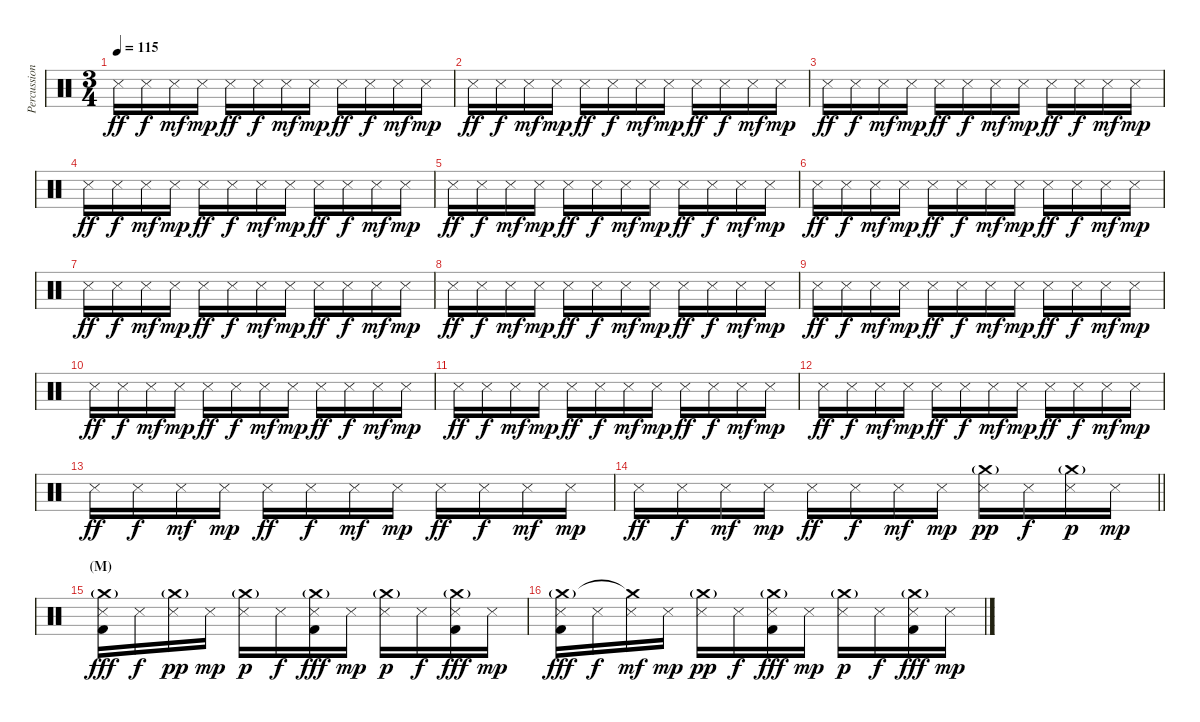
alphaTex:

\track ("Percussion 1" "Percussion") {instrument percussion}
\staff {score}
\articulation defaults
\ts (3 4)
\tempo 115
\clef neutral
\ks c "Snare (side stick) 3".16{dy ff} "Snare (side stick) 3".16{dy f} "Snare (side stick) 3".16{dy mf} "Snare (side stick) 3".16{dy mp} "Snare (side stick) 3".16{dy ff} "Snare (side stick) 3".16{dy f} "Snare (side stick) 3".16{dy mf} "Snare (side stick) 3".16{dy mp} "Snare (side stick) 3".16{dy ff} "Snare (side stick) 3".16{dy f} "Snare (side stick) 3".16{dy mf} "Snare (side stick) 3".16{dy mp}
|
"Snare (side stick) 3".16{dy ff} "Snare (side stick) 3".16{dy f} "Snare (side stick) 3".16{dy mf} "Snare (side stick) 3".16{dy mp} "Snare (side stick) 3".16{dy ff} "Snare (side stick) 3".16{dy f} "Snare (side stick) 3".16{dy mf} "Snare (side stick) 3".16{dy mp} "Snare (side stick) 3".16{dy ff} "Snare (side stick) 3".16{dy f} "Snare (side stick) 3".16{dy mf} "Snare (side stick) 3".16{dy mp} |
"Snare (side stick) 3".16{dy ff} "Snare (side stick) 3".16{dy f} "Snare (side stick) 3".16{dy mf} "Snare (side stick) 3".16{dy mp} "Snare (side stick) 3".16{dy ff} "Snare (side stick) 3".16{dy f} "Snare (side stick) 3".16{dy mf} "Snare (side stick) 3".16{dy mp} "Snare (side stick) 3".16{dy ff} "Snare (side stick) 3".16{dy f} "Snare (side stick) 3".16{dy mf} "Snare (side stick) 3".16{dy mp} |
"Snare (side stick) 3".16{dy ff} "Snare (side stick) 3".16{dy f} "Snare (side stick) 3".16{dy mf} "Snare (side stick) 3".16{dy mp} "Snare (side stick) 3".16{dy ff} "Snare (side stick) 3".16{dy f} "Snare (side stick) 3".16{dy mf} "Snare (side stick) 3".16{dy mp} "Snare (side stick) 3".16{dy ff} "Snare (side stick) 3".16{dy f} "Snare (side stick) 3".16{dy mf} "Snare (side stick) 3".16{dy mp} |
"Snare (side stick) 3".16{dy ff} "Snare (side stick) 3".16{dy f} "Snare (side stick) 3".16{dy mf} "Snare (side stick) 3".16{dy mp} "Snare (side stick) 3".16{dy ff} "Snare (side stick) 3".16{dy f} "Snare (side stick) 3".16{dy mf} "Snare (side stick) 3".16{dy mp} "Snare (side stick) 3".16{dy ff} "Snare (side stick) 3".16{dy f} "Snare (side stick) 3".16{dy mf} "Snare (side stick) 3".16{dy mp} |
"Snare (side stick) 3".16{dy ff} "Snare (side stick) 3".16{dy f} "Snare (side stick) 3".16{dy mf} "Snare (side stick) 3".16{dy mp} "Snare (side stick) 3".16{dy ff} "Snare (side stick) 3".16{dy f} "Snare (side stick) 3".16{dy mf} "Snare (side stick) 3".16{dy mp} "Snare (side stick) 3".16{dy ff} "Snare (side stick) 3".16{dy f} "Snare (side stick) 3".16{dy mf} "Snare (side stick) 3".16{dy mp} |
"Snare (side stick) 3".16{dy ff} "Snare (side stick) 3".16{dy f} "Snare (side stick) 3".16{dy mf} "Snare (side stick) 3".16{dy mp} "Snare (side stick) 3".16{dy ff} "Snare (side stick) 3".16{dy f} "Snare (side stick) 3".16{dy mf} "Snare (side stick) 3".16{dy mp} "Snare (side stick) 3".16{dy ff} "Snare (side stick) 3".16{dy f} "Snare (side stick) 3".16{dy mf} "Snare (side stick) 3".16{dy mp} |
"Snare (side stick) 3".16{dy ff} "Snare (side stick) 3".16{dy f} "Snare (side stick) 3".16{dy mf} "Snare (side stick) 3".16{dy mp} "Snare (side stick) 3".16{dy ff} "Snare (side stick) 3".16{dy f} "Snare (side stick) 3".16{dy mf} "Snare (side stick) 3".16{dy mp} "Snare (side stick) 3".16{dy ff} "Snare (side stick) 3".16{dy f} "Snare (side stick) 3".16{dy mf} "Snare (side stick) 3".16{dy mp} |
"Snare (side stick) 3".16{dy ff} "Snare (side stick) 3".16{dy f} "Snare (side stick) 3".16{dy mf} "Snare (side stick) 3".16{dy mp} "Snare (side stick) 3".16{dy ff} "Snare (side stick) 3".16{dy f} "Snare (side stick) 3".16{dy mf} "Snare (side stick) 3".16{dy mp} "Snare (side stick) 3".16{dy ff} "Snare (side stick) 3".16{dy f} "Snare (side stick) 3".16{dy mf} "Snare (side stick) 3".16{dy mp} |
"Snare (side stick) 3".16{dy ff} "Snare (side stick) 3".16{dy f} "Snare (side stick) 3".16{dy mf} "Snare (side stick) 3".16{dy mp} "Snare (side stick) 3".16{dy ff} "Snare (side stick) 3".16{dy f} "Snare (side stick) 3".16{dy mf} "Snare (side stick) 3".16{dy mp} "Snare (side stick) 3".16{dy ff} "Snare (side stick) 3".16{dy f} "Snare (side stick) 3".16{dy mf} "Snare (side stick) 3".16{dy mp} |
"Snare (side stick) 3".16{dy ff} "Snare (side stick) 3".16{dy f} "Snare (side stick) 3".16{dy mf} "Snare (side stick) 3".16{dy mp} "Snare (side stick) 3".16{dy ff} "Snare (side stick) 3".16{dy f} "Snare (side stick) 3".16{dy mf} "Snare (side stick) 3".16{dy mp} "Snare (side stick) 3".16{dy ff} "Snare (side stick) 3".16{dy f} "Snare (side stick) 3".16{dy mf} "Snare (side stick) 3".16{dy mp} |
"Snare (side stick) 3".16{dy ff} "Snare (side stick) 3".16{dy f} "Snare (side stick) 3".16{dy mf} "Snare (side stick) 3".16{dy mp} "Snare (side stick) 3".16{dy ff} "Snare (side stick) 3".16{dy f} "Snare (side stick) 3".16{dy mf} "Snare (side stick) 3".16{dy mp} "Snare (side stick) 3".16{dy ff} "Snare (side stick) 3".16{dy f} "Snare (side stick) 3".16{dy mf} "Snare (side stick) 3".16{dy mp} |
"Snare (side stick) 3".16{dy ff} "Snare (side stick) 3".16{dy f} "Snare (side stick) 3".16{dy mf} "Snare (side stick) 3".16{dy mp} "Snare (side stick) 3".16{dy ff} "Snare (side stick) 3".16{dy f} "Snare (side stick) 3".16{dy mf} "Snare (side stick) 3".16{dy mp} "Snare (side stick) 3".16{dy ff} "Snare (side stick) 3".16{dy f} "Snare (side stick) 3".16{dy mf} "Snare (side stick) 3".16{dy mp} |
\barLineRight lightlight "Snare (side stick) 3".16{dy ff} "Snare (side stick) 3".16{dy f} "Snare (side stick) 3".16{dy mf} "Snare (side stick) 3".16{dy mp} "Snare (side stick) 3".16{dy ff} "Snare (side stick) 3".16{dy f} "Snare (side stick) 3".16{dy mf} "Snare (side stick) 3".16{dy mp}
("Snare (side stick) 3" "Crash medium (hit)"{g}).16{dy pp} "Snare (side stick) 3".16{dy f} ("Snare (side stick) 3" "Crash medium (hit)"{g}).16{dy p} "Snare (side stick) 3".16{dy mp} |
\section ("" "(M)")
("Snare (side stick) 3" "Crash medium (hit)"{g} "Kick (hit) 2").16{dy fff} "Snare (side stick) 3".16{dy f} ("Snare (side stick) 3" "Crash medium (hit)"{g}).16{dy pp} "Snare (side stick) 3".16{dy mp} ("Snare (side stick) 3" "Crash medium (hit)"{g}).16{dy p} "Snare (side stick) 3".16{dy f} ("Snare (side stick) 3" "Crash medium (hit)"{g} "Kick (hit) 2").16{dy fff} "Snare (side stick) 3".16{dy mp} ("Snare (side stick) 3" "Crash medium (hit)"{g}).16{dy p} "Snare (side stick) 3".16{dy f} ("Snare (side stick) 3" "Crash medium (hit)"{g} "Kick (hit) 2").16{dy fff} "Snare (side stick) 3".16{dy mp} |
("Snare (side stick) 3" "Crash medium (hit)"{g} "Kick (hit) 2").16{dy fff} "Snare (side stick) 3".16{dy f} ("Snare (side stick) 3" "Crash medium (hit)"{t}).16{dy mf} "Snare (side stick) 3".16{dy mp} ("Snare (side stick) 3" "Crash medium (hit)"{g}).16{dy pp} "Snare (side stick) 3".16{dy f} ("Snare (side stick) 3" "Crash medium (hit)"{g} "Kick (hit) 2").16{dy fff} "Snare (side stick) 3".16{dy mp} ("Snare (side stick) 3" "Crash medium (hit)"{g}).16{dy p} "Snare (side stick) 3".16{dy f} ("Snare (side stick) 3" "Crash medium (hit)"{g} "Kick (hit) 2").16{dy fff} "Snare (side stick) 3".16{dy mp}
